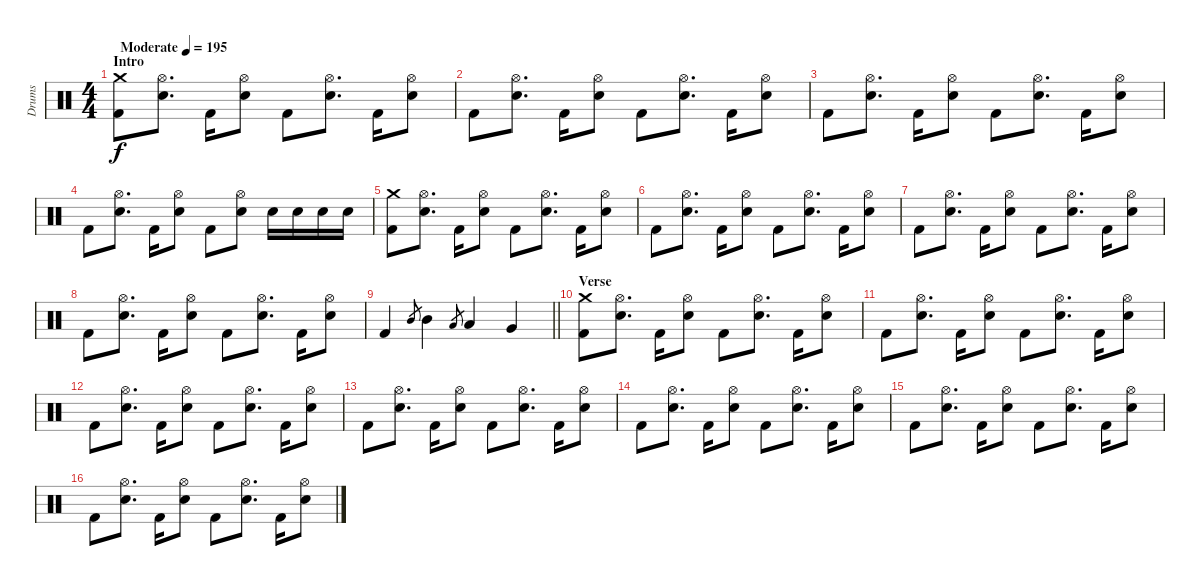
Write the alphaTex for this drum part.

\track ("Drums" "Drums") {instrument percussion}
\staff {score}
\articulation defaults
\ts (4 4)
\section ("" "Intro")
\tempo (195 "Moderate")
\clef neutral
\ks c
("Crash medium (hit)" "Kick (hit) 2").8{dy f} ("Hi-Hat (open)" "Electric Snare (hit)").8{d} "Kick (hit) 2".16 ("Hi-Hat (open)" "Electric Snare (hit)").8 "Kick (hit) 2".8 ("Hi-Hat (open)" "Electric Snare (hit)").8{d} "Kick (hit) 2".16 ("Hi-Hat (open)" "Electric Snare (hit)").8 |
"Kick (hit) 2".8 ("Hi-Hat (open)" "Electric Snare (hit)").8{d} "Kick (hit) 2".16 ("Hi-Hat (open)" "Electric Snare (hit)").8 "Kick (hit) 2".8 ("Hi-Hat (open)" "Electric Snare (hit)").8{d} "Kick (hit) 2".16 ("Hi-Hat (open)" "Electric Snare (hit)").8 |
"Kick (hit) 2".8 ("Hi-Hat (open)" "Electric Snare (hit)").8{d} "Kick (hit) 2".16 ("Hi-Hat (open)" "Electric Snare (hit)").8 "Kick (hit) 2".8 ("Hi-Hat (open)" "Electric Snare (hit)").8{d} "Kick (hit) 2".16 ("Hi-Hat (open)" "Electric Snare (hit)").8 |
"Kick (hit) 2".8 ("Hi-Hat (open)" "Electric Snare (hit)").8{d} "Kick (hit) 2".16 ("Hi-Hat (open)" "Electric Snare (hit)").8 "Kick (hit) 2".8 ("Hi-Hat (open)" "Electric Snare (hit)").8 "Electric Snare (hit)".16 "Electric Snare (hit)".16 "Electric Snare (hit)".16 "Electric Snare (hit)".16 |
("Crash medium (hit)" "Kick (hit) 2").8 ("Hi-Hat (open)" "Electric Snare (hit)").8{d} "Kick (hit) 2".16 ("Hi-Hat (open)" "Electric Snare (hit)").8 "Kick (hit) 2".8 ("Hi-Hat (open)" "Electric Snare (hit)").8{d} "Kick (hit) 2".16 ("Hi-Hat (open)" "Electric Snare (hit)").8 |
"Kick (hit) 2".8 ("Hi-Hat (open)" "Electric Snare (hit)").8{d} "Kick (hit) 2".16 ("Hi-Hat (open)" "Electric Snare (hit)").8 "Kick (hit) 2".8 ("Hi-Hat (open)" "Electric Snare (hit)").8{d} "Kick (hit) 2".16 ("Hi-Hat (open)" "Electric Snare (hit)").8 |
"Kick (hit) 2".8 ("Hi-Hat (open)" "Electric Snare (hit)").8{d} "Kick (hit) 2".16 ("Hi-Hat (open)" "Electric Snare (hit)").8 "Kick (hit) 2".8 ("Hi-Hat (open)" "Electric Snare (hit)").8{d} "Kick (hit) 2".16 ("Hi-Hat (open)" "Electric Snare (hit)").8 |
"Kick (hit) 2".8 ("Hi-Hat (open)" "Electric Snare (hit)").8{d} "Kick (hit) 2".16 ("Hi-Hat (open)" "Electric Snare (hit)").8 "Kick (hit) 2".8 ("Hi-Hat (open)" "Electric Snare (hit)").8{d} "Kick (hit) 2".16 ("Hi-Hat (open)" "Electric Snare (hit)").8 |
\barLineRight lightlight "Kick (hit) 2".4 "Mid Tom (hit)"{x}.8{gr} "Mid Tom (hit)".4 "Low Tom (hit)".8{gr} "Low Tom (hit)".4 "Very Low Tom (hit)".4
|
\section ("" "Verse")
("Crash medium (hit)" "Kick (hit) 2").8 ("Hi-Hat (open)" "Electric Snare (hit)").8{d} "Kick (hit) 2".16 ("Hi-Hat (open)" "Electric Snare (hit)").8 "Kick (hit) 2".8 ("Hi-Hat (open)" "Electric Snare (hit)").8{d} "Kick (hit) 2".16 ("Hi-Hat (open)" "Electric Snare (hit)").8 |
"Kick (hit) 2".8 ("Hi-Hat (open)" "Electric Snare (hit)").8{d} "Kick (hit) 2".16 ("Hi-Hat (open)" "Electric Snare (hit)").8 "Kick (hit) 2".8 ("Hi-Hat (open)" "Electric Snare (hit)").8{d} "Kick (hit) 2".16 ("Hi-Hat (open)" "Electric Snare (hit)").8 |
"Kick (hit) 2".8 ("Hi-Hat (open)" "Electric Snare (hit)").8{d} "Kick (hit) 2".16 ("Hi-Hat (open)" "Electric Snare (hit)").8 "Kick (hit) 2".8 ("Hi-Hat (open)" "Electric Snare (hit)").8{d} "Kick (hit) 2".16 ("Hi-Hat (open)" "Electric Snare (hit)").8 |
"Kick (hit) 2".8 ("Hi-Hat (open)" "Electric Snare (hit)").8{d} "Kick (hit) 2".16 ("Hi-Hat (open)" "Electric Snare (hit)").8 "Kick (hit) 2".8 ("Hi-Hat (open)" "Electric Snare (hit)").8{d} "Kick (hit) 2".16 ("Hi-Hat (open)" "Electric Snare (hit)").8 |
"Kick (hit) 2".8 ("Hi-Hat (open)" "Electric Snare (hit)").8{d} "Kick (hit) 2".16 ("Hi-Hat (open)" "Electric Snare (hit)").8 "Kick (hit) 2".8 ("Hi-Hat (open)" "Electric Snare (hit)").8{d} "Kick (hit) 2".16 ("Hi-Hat (open)" "Electric Snare (hit)").8 |
"Kick (hit) 2".8 ("Hi-Hat (open)" "Electric Snare (hit)").8{d} "Kick (hit) 2".16 ("Hi-Hat (open)" "Electric Snare (hit)").8 "Kick (hit) 2".8 ("Hi-Hat (open)" "Electric Snare (hit)").8{d} "Kick (hit) 2".16 ("Hi-Hat (open)" "Electric Snare (hit)").8 |
"Kick (hit) 2".8 ("Hi-Hat (open)" "Electric Snare (hit)").8{d} "Kick (hit) 2".16 ("Hi-Hat (open)" "Electric Snare (hit)").8 "Kick (hit) 2".8 ("Hi-Hat (open)" "Electric Snare (hit)").8{d} "Kick (hit) 2".16 ("Hi-Hat (open)" "Electric Snare (hit)").8
